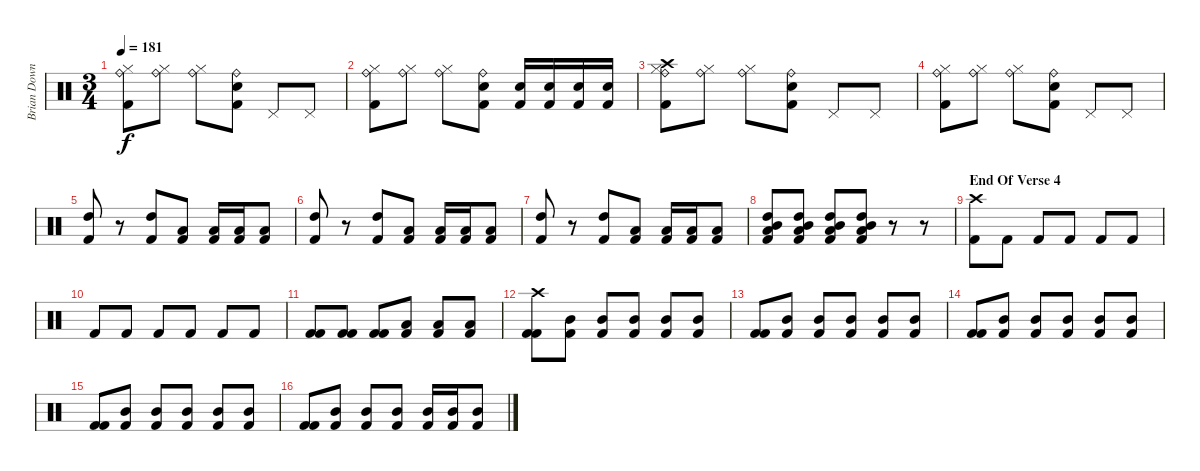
\track ("Brian Downey" "Brian Down") {instrument percussion}
\staff {score}
\articulation defaults
\ts (3 4)
\tempo 181
\clef neutral
\ks c
("Ride (bell)" "Hi-Hat (closed)" "Kick (hit) 2").8{dy f} ("Ride (bell)" "Hi-Hat (closed)").8 ("Ride (bell)" "Hi-Hat (closed)").8 ("Ride (bell)" "Snare (hit) 2" "Kick (hit) 2").8 "Pedal Hi-Hat (hit)".8 "Pedal Hi-Hat (hit)".8 |
("Ride (bell)" "Hi-Hat (closed)" "Kick (hit) 2").8 ("Ride (bell)" "Hi-Hat (closed)").8 ("Ride (bell)" "Hi-Hat (closed)").8 ("Ride (bell)" "Snare (hit) 2" "Kick (hit) 2").8 ("Snare (hit) 2" "Kick (hit) 2").16 ("Snare (hit) 2" "Kick (hit) 2").16 ("Snare (hit) 2" "Kick (hit) 2").16 ("Snare (hit) 2" "Kick (hit) 2").16 |
("Crash high (hit)" "Ride (bell)" "Hi-Hat (closed)" "Kick (hit) 2").8 ("Ride (bell)" "Hi-Hat (closed)").8 ("Ride (bell)" "Hi-Hat (closed)").8 ("Ride (bell)" "Snare (hit) 2" "Kick (hit) 2").8 "Pedal Hi-Hat (hit)".8 "Pedal Hi-Hat (hit)".8 |
("Ride (bell)" "Hi-Hat (closed)" "Kick (hit) 2").8 ("Ride (bell)" "Hi-Hat (closed)").8 ("Ride (bell)" "Hi-Hat (closed)").8 ("Ride (bell)" "Snare (hit) 2" "Kick (hit) 2").8 "Pedal Hi-Hat (hit)".8 "Pedal Hi-Hat (hit)".8 |
("High Tom (hit)" "Kick (hit) 2").8 r.8 ("High Tom (hit)" "Kick (hit) 2").8 ("Low Tom (hit)" "Kick (hit) 2").8 ("Low Tom (hit)" "Kick (hit) 2").16 ("Low Tom (hit)" "Kick (hit) 2").16 ("Low Tom (hit)" "Kick (hit) 2").8 |
("High Tom (hit)" "Kick (hit) 2").8 r.8 ("High Tom (hit)" "Kick (hit) 2").8 ("Low Tom (hit)" "Kick (hit) 2").8 ("Low Tom (hit)" "Kick (hit) 2").16 ("Low Tom (hit)" "Kick (hit) 2").16 ("Low Tom (hit)" "Kick (hit) 2").8 |
("High Tom (hit)" "Kick (hit) 2").8 r.8 ("High Tom (hit)" "Kick (hit) 2").8 ("Low Tom (hit)" "Kick (hit) 2").8 ("Low Tom (hit)" "Kick (hit) 2").16 ("Low Tom (hit)" "Kick (hit) 2").16 ("Low Tom (hit)" "Kick (hit) 2").8 |
("High Tom (hit)" "Mid Tom (hit)" "Low Tom (hit)" "Kick (hit) 2").8 ("High Tom (hit)" "Mid Tom (hit)" "Low Tom (hit)" "Kick (hit) 2").8 ("High Tom (hit)" "Mid Tom (hit)" "Low Tom (hit)" "Kick (hit) 2").8 ("High Tom (hit)" "Mid Tom (hit)" "Low Tom (hit)" "Kick (hit) 2").8 r.8 r.8 |
\section ("" "End Of Verse 4")
("Crash high (hit)" "Kick (hit) 2").8 "Kick (hit) 2".8 "Kick (hit) 2".8 "Kick (hit) 2".8 "Kick (hit) 2".8 "Kick (hit) 2".8 |
"Kick (hit) 2".8 "Kick (hit) 2".8 "Kick (hit) 2".8 "Kick (hit) 2".8 "Kick (hit) 2".8 "Kick (hit) 2".8 |
("Kick (hit) 2" "Kick (hit) 2").8 ("Kick (hit) 2" "Kick (hit) 2").8 ("Kick (hit) 2" "Kick (hit) 2").8 ("Low Tom (hit)" "Kick (hit) 2").8 ("Low Tom (hit)" "Kick (hit) 2").8 ("Low Tom (hit)" "Kick (hit) 2").8 |
("Crash high (hit)" "Kick (hit) 2" "Kick (hit) 2").8 ("Mid Tom (hit)" "Kick (hit) 2").8 ("Mid Tom (hit)" "Kick (hit) 2").8 ("Mid Tom (hit)" "Kick (hit) 2").8 ("Mid Tom (hit)" "Kick (hit) 2").8 ("Mid Tom (hit)" "Kick (hit) 2").8 |
("Kick (hit) 2" "Kick (hit) 2").8 ("Mid Tom (hit)" "Kick (hit) 2").8 ("Mid Tom (hit)" "Kick (hit) 2").8 ("Mid Tom (hit)" "Kick (hit) 2").8 ("Mid Tom (hit)" "Kick (hit) 2").8 ("Mid Tom (hit)" "Kick (hit) 2").8 |
("Kick (hit) 2" "Kick (hit) 2").8 ("Mid Tom (hit)" "Kick (hit) 2").8 ("Mid Tom (hit)" "Kick (hit) 2").8 ("Mid Tom (hit)" "Kick (hit) 2").8 ("Mid Tom (hit)" "Kick (hit) 2").8 ("Mid Tom (hit)" "Kick (hit) 2").8 |
("Kick (hit) 2" "Kick (hit) 2").8 ("Mid Tom (hit)" "Kick (hit) 2").8 ("Mid Tom (hit)" "Kick (hit) 2").8 ("Mid Tom (hit)" "Kick (hit) 2").8 ("Mid Tom (hit)" "Kick (hit) 2").8 ("Mid Tom (hit)" "Kick (hit) 2").8 |
("Kick (hit) 2" "Kick (hit) 2").8 ("Mid Tom (hit)" "Kick (hit) 2").8 ("Mid Tom (hit)" "Kick (hit) 2").8 ("Mid Tom (hit)" "Kick (hit) 2").8 ("Mid Tom (hit)" "Kick (hit) 2").16 ("Mid Tom (hit)" "Kick (hit) 2").16 ("Mid Tom (hit)" "Kick (hit) 2").8
